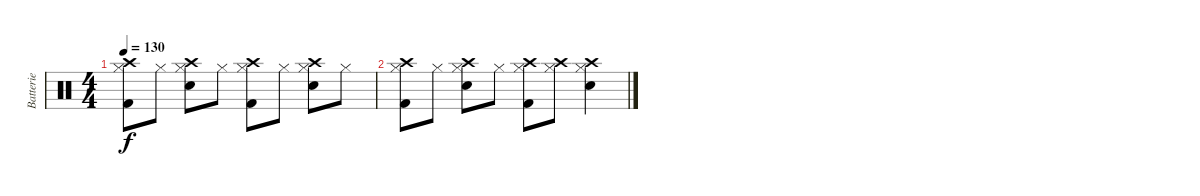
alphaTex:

\track ("Batterie" "Batterie") {instrument percussion}
\staff {score}
\articulation defaults
\ts (4 4)
\tempo 130
\clef neutral
\ks c
("Hi-Hat (closed)" "Kick (hit) 2" "Crash high (hit)").8{dy f} "Hi-Hat (closed)".8 ("Hi-Hat (closed)" "Electric Snare (hit)" "Crash high (hit)").8 "Hi-Hat (closed)".8 ("Hi-Hat (closed)" "Kick (hit) 2" "Crash high (hit)").8 "Hi-Hat (closed)".8 ("Hi-Hat (closed)" "Electric Snare (hit)" "Crash high (hit)").8 "Hi-Hat (closed)".8 |
("Hi-Hat (closed)" "Kick (hit) 2" "Crash high (hit)").8 "Hi-Hat (closed)".8 ("Hi-Hat (closed)" "Electric Snare (hit)" "Crash high (hit)").8 "Hi-Hat (closed)".8 ("Hi-Hat (closed)" "Kick (hit) 2" "Crash high (hit)").8 ("Hi-Hat (closed)" "Crash high (hit)").8 ("Hi-Hat (closed)" "Electric Snare (hit)" "Crash high (hit)").4
